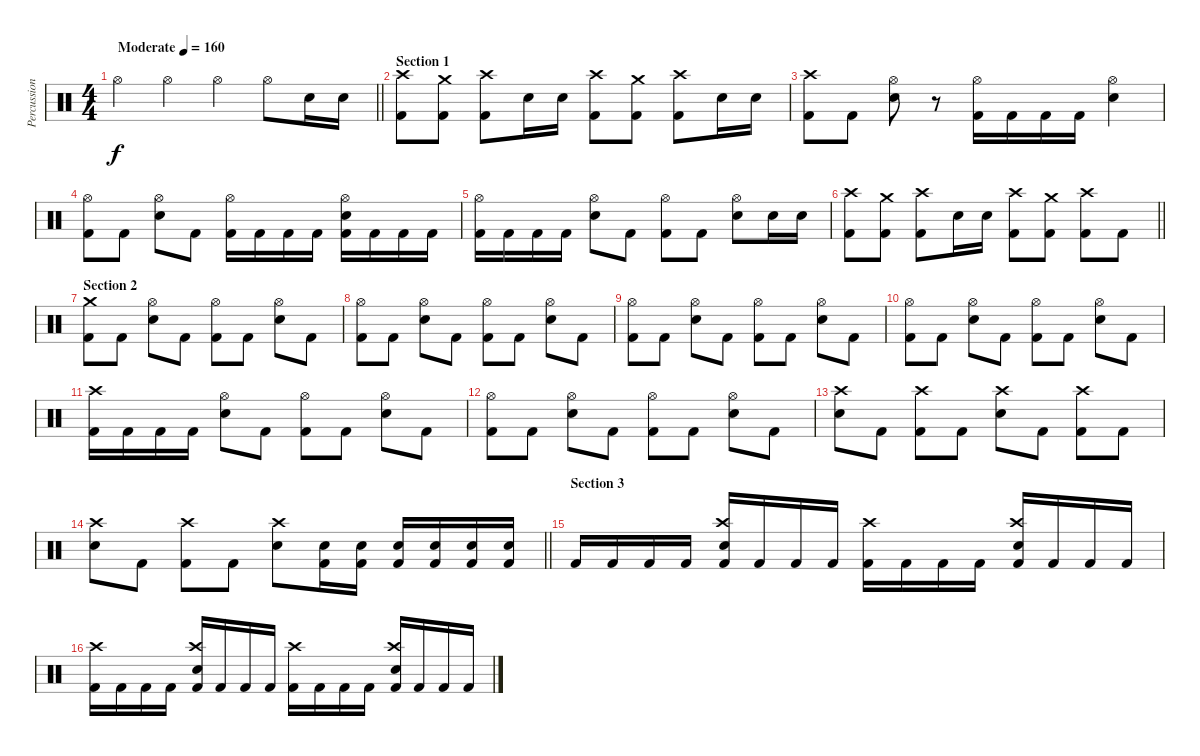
\track ("Percussion" "Percussion") {instrument percussion}
\staff {score}
\articulation defaults
\ts (4 4)
\tempo (160 "Moderate")
\clef neutral
\barLineRight lightlight
\ks c "Hi-Hat (open)".4{dy f} "Hi-Hat (open)".4 "Hi-Hat (open)".4 "Hi-Hat (open)".8 "Electric Snare (hit)".16 "Electric Snare (hit)".16
|
\section ("" "Section 1")
("Crash high (hit)" "Kick (hit) 2").8 ("Crash medium (hit)" "Kick (hit) 2").8 ("Crash high (hit)" "Kick (hit) 2").8 "Electric Snare (hit)".16 "Electric Snare (hit)".16 ("Crash high (hit)" "Kick (hit) 2").8 ("Crash medium (hit)" "Kick (hit) 2").8 ("Crash high (hit)" "Kick (hit) 2").8 "Electric Snare (hit)".16 "Electric Snare (hit)".16 |
("Crash high (hit)" "Kick (hit) 2").8 "Kick (hit) 2".8 ("Hi-Hat (open)" "Electric Snare (hit)").8 r.8 ("Hi-Hat (open)" "Kick (hit) 2").16 "Kick (hit) 2".16 "Kick (hit) 2".16 "Kick (hit) 2".16 ("Hi-Hat (open)" "Electric Snare (hit)").4 |
("Hi-Hat (open)" "Kick (hit) 2").8 "Kick (hit) 2".8 ("Hi-Hat (open)" "Electric Snare (hit)").8 "Kick (hit) 2".8 ("Hi-Hat (open)" "Kick (hit) 2").16 "Kick (hit) 2".16 "Kick (hit) 2".16 "Kick (hit) 2".16 ("Hi-Hat (open)" "Electric Snare (hit)" "Kick (hit) 2").16 "Kick (hit) 2".16 "Kick (hit) 2".16 "Kick (hit) 2".16 |
("Hi-Hat (open)" "Kick (hit) 2").16 "Kick (hit) 2".16 "Kick (hit) 2".16 "Kick (hit) 2".16 ("Hi-Hat (open)" "Electric Snare (hit)").8 "Kick (hit) 2".8 ("Hi-Hat (open)" "Kick (hit) 2").8 "Kick (hit) 2".8 ("Hi-Hat (open)" "Electric Snare (hit)").8 "Electric Snare (hit)".16 "Electric Snare (hit)".16 |
\barLineRight lightlight
("Crash high (hit)" "Kick (hit) 2").8 ("Crash medium (hit)" "Kick (hit) 2").8 ("Crash high (hit)" "Kick (hit) 2").8 "Electric Snare (hit)".16 "Electric Snare (hit)".16 ("Crash high (hit)" "Kick (hit) 2").8 ("Crash medium (hit)" "Kick (hit) 2").8 ("Crash high (hit)" "Kick (hit) 2").8 "Kick (hit) 2".8 |
\section ("" "Section 2")
("Crash medium (hit)" "Kick (hit) 2").8 "Kick (hit) 2".8 ("Hi-Hat (open)" "Electric Snare (hit)").8 "Kick (hit) 2".8 ("Hi-Hat (open)" "Kick (hit) 2").8 "Kick (hit) 2".8 ("Hi-Hat (open)" "Electric Snare (hit)").8 "Kick (hit) 2".8 |
("Hi-Hat (open)" "Kick (hit) 2").8 "Kick (hit) 2".8 ("Hi-Hat (open)" "Electric Snare (hit)").8 "Kick (hit) 2".8 ("Hi-Hat (open)" "Kick (hit) 2").8 "Kick (hit) 2".8 ("Hi-Hat (open)" "Electric Snare (hit)").8 "Kick (hit) 2".8 |
("Hi-Hat (open)" "Kick (hit) 2").8 "Kick (hit) 2".8 ("Hi-Hat (open)" "Electric Snare (hit)").8 "Kick (hit) 2".8 ("Hi-Hat (open)" "Kick (hit) 2").8 "Kick (hit) 2".8 ("Hi-Hat (open)" "Electric Snare (hit)").8 "Kick (hit) 2".8 |
("Hi-Hat (open)" "Kick (hit) 2").8 "Kick (hit) 2".8 ("Hi-Hat (open)" "Electric Snare (hit)").8 "Kick (hit) 2".8 ("Hi-Hat (open)" "Kick (hit) 2").8 "Kick (hit) 2".8 ("Hi-Hat (open)" "Electric Snare (hit)").8 "Kick (hit) 2".8 |
("Crash high (hit)" "Kick (hit) 2").16 "Kick (hit) 2".16 "Kick (hit) 2".16 "Kick (hit) 2".16 ("Hi-Hat (open)" "Electric Snare (hit)").8 "Kick (hit) 2".8 ("Hi-Hat (open)" "Kick (hit) 2").8 "Kick (hit) 2".8 ("Hi-Hat (open)" "Electric Snare (hit)").8 "Kick (hit) 2".8 |
("Hi-Hat (open)" "Kick (hit) 2").8 "Kick (hit) 2".8 ("Hi-Hat (open)" "Electric Snare (hit)").8 "Kick (hit) 2".8 ("Hi-Hat (open)" "Kick (hit) 2").8 "Kick (hit) 2".8 ("Hi-Hat (open)" "Electric Snare (hit)").8 "Kick (hit) 2".8 |
("Crash high (hit)" "Electric Snare (hit)").8 "Kick (hit) 2".8 ("Crash high (hit)" "Kick (hit) 2").8 "Kick (hit) 2".8 ("Crash high (hit)" "Electric Snare (hit)").8 "Kick (hit) 2".8 ("Crash high (hit)" "Kick (hit) 2").8 "Kick (hit) 2".8 |
\barLineRight lightlight
("Crash high (hit)" "Electric Snare (hit)").8 "Kick (hit) 2".8 ("Crash high (hit)" "Kick (hit) 2").8 "Kick (hit) 2".8 ("Crash high (hit)" "Electric Snare (hit)").8 ("Electric Snare (hit)" "Kick (hit) 2").16 ("Electric Snare (hit)" "Kick (hit) 2").16 ("Electric Snare (hit)" "Kick (hit) 2").16 ("Electric Snare (hit)" "Kick (hit) 2").16 ("Electric Snare (hit)" "Kick (hit) 2").16 ("Electric Snare (hit)" "Kick (hit) 2").16 |
\section ("" "Section 3")
"Kick (hit) 2".16 "Kick (hit) 2".16 "Kick (hit) 2".16 "Kick (hit) 2".16 ("Crash high (hit)" "Electric Snare (hit)" "Kick (hit) 2").16 "Kick (hit) 2".16 "Kick (hit) 2".16 "Kick (hit) 2".16 ("Crash high (hit)" "Kick (hit) 2").16 "Kick (hit) 2".16 "Kick (hit) 2".16 "Kick (hit) 2".16 ("Crash high (hit)" "Electric Snare (hit)" "Kick (hit) 2").16 "Kick (hit) 2".16 "Kick (hit) 2".16 "Kick (hit) 2".16 |
("Crash high (hit)" "Kick (hit) 2").16 "Kick (hit) 2".16 "Kick (hit) 2".16 "Kick (hit) 2".16 ("Crash high (hit)" "Electric Snare (hit)" "Kick (hit) 2").16 "Kick (hit) 2".16 "Kick (hit) 2".16 "Kick (hit) 2".16 ("Crash high (hit)" "Kick (hit) 2").16 "Kick (hit) 2".16 "Kick (hit) 2".16 "Kick (hit) 2".16 ("Crash high (hit)" "Electric Snare (hit)" "Kick (hit) 2").16 "Kick (hit) 2".16 "Kick (hit) 2".16 "Kick (hit) 2".16
